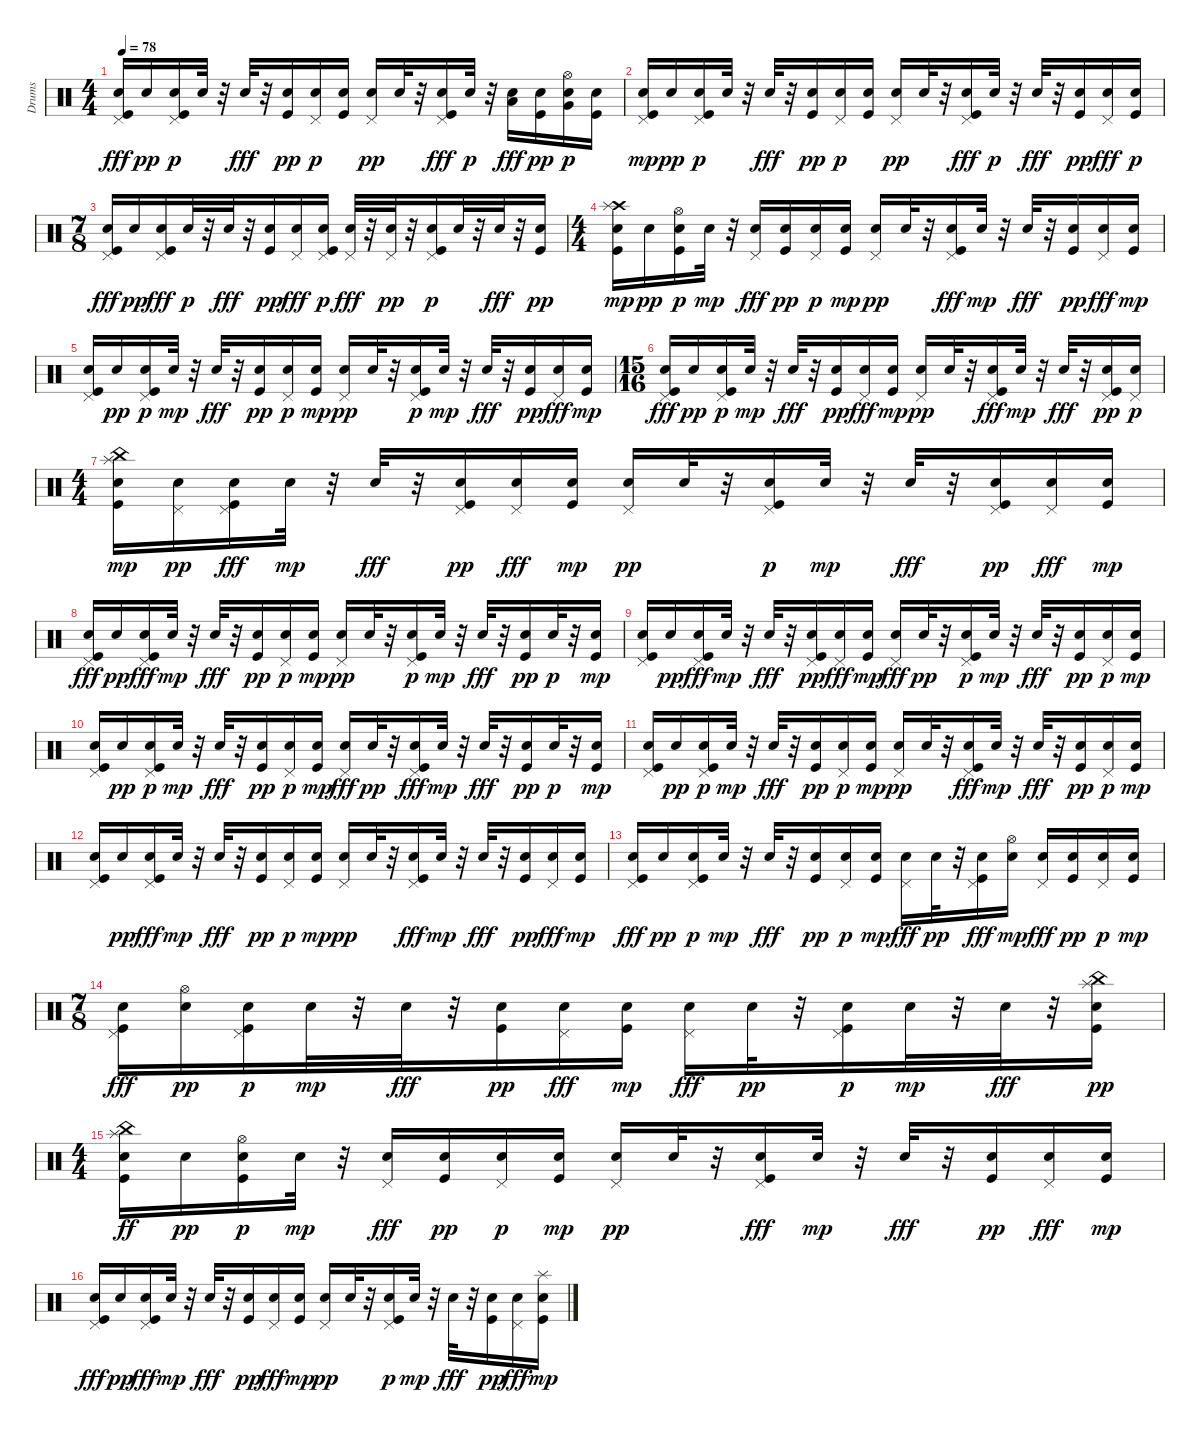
\track ("Drums" "Drums") {instrument percussion}
\staff {score}
\articulation defaults
\ts (4 4)
\tempo 78
\clef neutral
\ks c
("Snare (hit) 2" "Kick (hit)" "Pedal Hi-Hat (hit)").16{dy fff} "Snare (hit) 2".16{dy pp} ("Pedal Hi-Hat (hit)" "Snare (hit) 2" "Kick (hit)").16{dy p} "Snare (hit) 2".32 r.32 "Snare (hit) 2".32{dy fff} r.32 ("Snare (hit) 2" "Kick (hit)").16{dy pp} ("Pedal Hi-Hat (hit)" "Snare (hit) 2").16{dy p} ("Snare (hit) 2" "Kick (hit)").16 ("Pedal Hi-Hat (hit)" "Snare (hit) 2").16{dy pp} "Snare (hit) 2".32 r.32 ("Snare (hit) 2" "Kick (hit)" "Pedal Hi-Hat (hit)").16{dy fff} "Snare (hit) 2".32{dy p} r.32 ("Low Tom (hit)" "Snare (hit) 2").16{dy fff} ("Snare (hit) 2" "Kick (hit)").16{dy pp} ("Very Low Tom (hit)" "Hi-Hat (open)" "Snare (hit) 2").16{dy p} ("Snare (hit) 2" "Kick (hit)").16 |
("Pedal Hi-Hat (hit)" "Snare (hit) 2" "Kick (hit)").16{dy mp} "Snare (hit) 2".16{dy pp} ("Kick (hit)" "Pedal Hi-Hat (hit)" "Snare (hit) 2").16{dy p} "Snare (hit) 2".32 r.32 "Snare (hit) 2".32{dy fff} r.32 ("Snare (hit) 2" "Kick (hit)").16{dy pp} ("Pedal Hi-Hat (hit)" "Snare (hit) 2").16{dy p} ("Snare (hit) 2" "Kick (hit)").16 ("Pedal Hi-Hat (hit)" "Snare (hit) 2").16{dy pp} "Snare (hit) 2".32 r.32 ("Kick (hit)" "Snare (hit) 2" "Pedal Hi-Hat (hit)").16{dy fff} "Snare (hit) 2".32{dy p} r.32 "Snare (hit) 2".32{dy fff} r.32 ("Snare (hit) 2" "Kick (hit)").16{dy pp} ("Snare (hit) 2" "Pedal Hi-Hat (hit)").16{dy fff} ("Kick (hit)" "Snare (hit) 2").16{dy p} |
\ts (7 8)
("Snare (hit) 2" "Pedal Hi-Hat (hit)" "Kick (hit)").16{dy fff} "Snare (hit) 2".16{dy pp} ("Snare (hit) 2" "Pedal Hi-Hat (hit)" "Kick (hit)").16{dy fff} "Snare (hit) 2".32{dy p} r.32 "Snare (hit) 2".32{dy fff} r.32 ("Snare (hit) 2" "Kick (hit)").16{dy pp} ("Snare (hit) 2" "Pedal Hi-Hat (hit)").16{dy fff} ("Pedal Hi-Hat (hit)" "Snare (hit) 2" "Kick (hit)").16{dy p} ("Snare (hit) 2" "Pedal Hi-Hat (hit)").32{dy fff} r.32 ("Pedal Hi-Hat (hit)" "Snare (hit) 2").32{dy pp} r.32 ("Pedal Hi-Hat (hit)" "Snare (hit) 2" "Kick (hit)").16{dy p} "Snare (hit) 2".32 r.32 "Snare (hit) 2".32{dy fff} r.32 ("Snare (hit) 2" "Kick (hit)").16{dy pp} |
\ts (4 4)
("Crash high (hit)" "Splash (hit)" "Kick (hit)" "Snare (hit) 2").16{dy mp} "Snare (hit) 2".16{dy pp} ("Kick (hit)" "Hi-Hat (open)" "Snare (hit) 2").16{dy p} "Snare (hit) 2".32{dy mp} r.32 ("Pedal Hi-Hat (hit)" "Snare (hit) 2").16{dy fff} ("Snare (hit) 2" "Kick (hit)").16{dy pp} ("Pedal Hi-Hat (hit)" "Snare (hit) 2").16{dy p} ("Kick (hit)" "Snare (hit) 2").16{dy mp} ("Pedal Hi-Hat (hit)" "Snare (hit) 2").16{dy pp} "Snare (hit) 2".32 r.32 ("Snare (hit) 2" "Kick (hit)" "Pedal Hi-Hat (hit)").16{dy fff} "Snare (hit) 2".32{dy mp} r.32 "Snare (hit) 2".32{dy fff} r.32 ("Kick (hit)" "Snare (hit) 2").16{dy pp} ("Snare (hit) 2" "Pedal Hi-Hat (hit)").16{dy fff} ("Snare (hit) 2" "Kick (hit)").16{dy mp} |
("Pedal Hi-Hat (hit)" "Kick (hit)" "Snare (hit) 2").16 "Snare (hit) 2".16{dy pp} ("Pedal Hi-Hat (hit)" "Snare (hit) 2" "Kick (hit)").16{dy p} "Snare (hit) 2".32{dy mp} r.32 "Snare (hit) 2".32{dy fff} r.32 ("Snare (hit) 2" "Kick (hit)").16{dy pp} ("Pedal Hi-Hat (hit)" "Snare (hit) 2").16{dy p} ("Kick (hit)" "Snare (hit) 2").16{dy mp} ("Pedal Hi-Hat (hit)" "Snare (hit) 2").16{dy pp} "Snare (hit) 2".32 r.32 ("Pedal Hi-Hat (hit)" "Snare (hit) 2" "Kick (hit)").16{dy p} "Snare (hit) 2".32{dy mp} r.32 "Snare (hit) 2".32{dy fff} r.32 ("Snare (hit) 2" "Kick (hit)").16{dy pp} ("Snare (hit) 2" "Pedal Hi-Hat (hit)").16{dy fff} ("Snare (hit) 2" "Kick (hit)").16{dy mp} |
\ts (15 16)
("Kick (hit)" "Snare (hit) 2" "Pedal Hi-Hat (hit)").16{dy fff} "Snare (hit) 2".16{dy pp} ("Kick (hit)" "Pedal Hi-Hat (hit)" "Snare (hit) 2").16{dy p} "Snare (hit) 2".32{dy mp} r.32 "Snare (hit) 2".32{dy fff} r.32 ("Kick (hit)" "Snare (hit) 2").16{dy pp} ("Snare (hit) 2" "Pedal Hi-Hat (hit)").16{dy fff} ("Snare (hit) 2" "Kick (hit)").16{dy mp} ("Pedal Hi-Hat (hit)" "Snare (hit) 2").16{dy pp} "Snare (hit) 2".32 r.32 ("Snare (hit) 2" "Pedal Hi-Hat (hit)" "Kick (hit)").16{dy fff} "Snare (hit) 2".32{dy mp} r.32 "Snare (hit) 2".32{dy fff} r.32 ("Pedal Hi-Hat (hit)" "Snare (hit) 2" "Kick (hit)").16{dy pp} ("Pedal Hi-Hat (hit)" "Snare (hit) 2").16{dy p} |
\ts (4 4)
("China (hit)" "Snare (hit) 2" "Kick (hit)" "Splash (hit)").16{dy mp} ("Pedal Hi-Hat (hit)" "Snare (hit) 2").16{dy pp} ("Snare (hit) 2" "Pedal Hi-Hat (hit)" "Kick (hit)").16{dy fff} "Snare (hit) 2".32{dy mp} r.32 "Snare (hit) 2".32{dy fff} r.32 ("Pedal Hi-Hat (hit)" "Kick (hit)" "Snare (hit) 2").16{dy pp} ("Snare (hit) 2" "Pedal Hi-Hat (hit)").16{dy fff} ("Snare (hit) 2" "Kick (hit)").16{dy mp} ("Pedal Hi-Hat (hit)" "Snare (hit) 2").16{dy pp} "Snare (hit) 2".32 r.32 ("Pedal Hi-Hat (hit)" "Kick (hit)" "Snare (hit) 2").16{dy p} "Snare (hit) 2".32{dy mp} r.32 "Snare (hit) 2".32{dy fff} r.32 ("Pedal Hi-Hat (hit)" "Kick (hit)" "Snare (hit) 2").16{dy pp} ("Snare (hit) 2" "Pedal Hi-Hat (hit)").16{dy fff} ("Kick (hit)" "Snare (hit) 2").16{dy mp} |
("Snare (hit) 2" "Kick (hit)" "Pedal Hi-Hat (hit)").16{dy fff} "Snare (hit) 2".16{dy pp} ("Snare (hit) 2" "Pedal Hi-Hat (hit)" "Kick (hit)").16{dy fff} "Snare (hit) 2".32{dy mp} r.32 "Snare (hit) 2".32{dy fff} r.32 ("Snare (hit) 2" "Kick (hit)").16{dy pp} ("Pedal Hi-Hat (hit)" "Snare (hit) 2").16{dy p} ("Snare (hit) 2" "Kick (hit)").16{dy mp} ("Pedal Hi-Hat (hit)" "Snare (hit) 2").16{dy pp} "Snare (hit) 2".32 r.32 ("Pedal Hi-Hat (hit)" "Snare (hit) 2" "Kick (hit)").16{dy p} "Snare (hit) 2".32{dy mp} r.32 "Snare (hit) 2".32{dy fff} r.32 ("Snare (hit) 2" "Kick (hit)").16{dy pp} "Snare (hit) 2".32{dy p} r.32 ("Kick (hit)" "Snare (hit) 2").16{dy mp} |
("Kick (hit)" "Pedal Hi-Hat (hit)" "Snare (hit) 2").16 "Snare (hit) 2".16{dy pp} ("Snare (hit) 2" "Pedal Hi-Hat (hit)" "Kick (hit)").16{dy fff} "Snare (hit) 2".32{dy mp} r.32 "Snare (hit) 2".32{dy fff} r.32 ("Pedal Hi-Hat (hit)" "Kick (hit)" "Snare (hit) 2").16{dy pp} ("Snare (hit) 2" "Pedal Hi-Hat (hit)").16{dy fff} ("Kick (hit)" "Snare (hit) 2").16{dy mp} ("Snare (hit) 2" "Pedal Hi-Hat (hit)").16{dy fff} "Snare (hit) 2".32{dy pp} r.32 ("Kick (hit)" "Pedal Hi-Hat (hit)" "Snare (hit) 2").16{dy p} "Snare (hit) 2".32{dy mp} r.32 "Snare (hit) 2".32{dy fff} r.32 ("Kick (hit)" "Snare (hit) 2").16{dy pp} ("Pedal Hi-Hat (hit)" "Snare (hit) 2").16{dy p} ("Snare (hit) 2" "Kick (hit)").16{dy mp} |
("Pedal Hi-Hat (hit)" "Kick (hit)" "Snare (hit) 2").16 "Snare (hit) 2".16{dy pp} ("Pedal Hi-Hat (hit)" "Kick (hit)" "Snare (hit) 2").16{dy p} "Snare (hit) 2".32{dy mp} r.32 "Snare (hit) 2".32{dy fff} r.32 ("Kick (hit)" "Snare (hit) 2").16{dy pp} ("Pedal Hi-Hat (hit)" "Snare (hit) 2").16{dy p} ("Snare (hit) 2" "Kick (hit)").16{dy mp} ("Snare (hit) 2" "Pedal Hi-Hat (hit)").16{dy fff} "Snare (hit) 2".32{dy pp} r.32 ("Snare (hit) 2" "Pedal Hi-Hat (hit)" "Kick (hit)").16{dy fff} "Snare (hit) 2".32{dy mp} r.32 "Snare (hit) 2".32{dy fff} r.32 ("Kick (hit)" "Snare (hit) 2").16{dy pp} "Snare (hit) 2".32{dy p} r.32 ("Snare (hit) 2" "Kick (hit)").16{dy mp} |
("Pedal Hi-Hat (hit)" "Kick (hit)" "Snare (hit) 2").16 "Snare (hit) 2".16{dy pp} ("Kick (hit)" "Pedal Hi-Hat (hit)" "Snare (hit) 2").16{dy p} "Snare (hit) 2".32{dy mp} r.32 "Snare (hit) 2".32{dy fff} r.32 ("Snare (hit) 2" "Kick (hit)").16{dy pp} ("Pedal Hi-Hat (hit)" "Snare (hit) 2").16{dy p} ("Kick (hit)" "Snare (hit) 2").16{dy mp} ("Pedal Hi-Hat (hit)" "Snare (hit) 2").16{dy pp} "Snare (hit) 2".32 r.32 ("Snare (hit) 2" "Pedal Hi-Hat (hit)" "Kick (hit)").16{dy fff} "Snare (hit) 2".32{dy mp} r.32 "Snare (hit) 2".32{dy fff} r.32 ("Snare (hit) 2" "Kick (hit)").16{dy pp} ("Pedal Hi-Hat (hit)" "Snare (hit) 2").16{dy p} ("Snare (hit) 2" "Kick (hit)").16{dy mp} |
("Pedal Hi-Hat (hit)" "Kick (hit)" "Snare (hit) 2").16 "Snare (hit) 2".16{dy pp} ("Snare (hit) 2" "Kick (hit)" "Pedal Hi-Hat (hit)").16{dy fff} "Snare (hit) 2".32{dy mp} r.32 "Snare (hit) 2".32{dy fff} r.32 ("Snare (hit) 2" "Kick (hit)").16{dy pp} ("Pedal Hi-Hat (hit)" "Snare (hit) 2").16{dy p} ("Snare (hit) 2" "Kick (hit)").16{dy mp} ("Pedal Hi-Hat (hit)" "Snare (hit) 2").16{dy pp} "Snare (hit) 2".32 r.32 ("Snare (hit) 2" "Kick (hit)" "Pedal Hi-Hat (hit)").16{dy fff} "Snare (hit) 2".32{dy mp} r.32 "Snare (hit) 2".32{dy fff} r.32 ("Kick (hit)" "Snare (hit) 2").16{dy pp} ("Snare (hit) 2" "Pedal Hi-Hat (hit)").16{dy fff} ("Kick (hit)" "Snare (hit) 2").16{dy mp} |
("Snare (hit) 2" "Kick (hit)" "Pedal Hi-Hat (hit)").16{dy fff} "Snare (hit) 2".16{dy pp} ("Kick (hit)" "Pedal Hi-Hat (hit)" "Snare (hit) 2").16{dy p} "Snare (hit) 2".32{dy mp} r.32 "Snare (hit) 2".32{dy fff} r.32 ("Snare (hit) 2" "Kick (hit)").16{dy pp} ("Pedal Hi-Hat (hit)" "Snare (hit) 2").16{dy p} ("Snare (hit) 2" "Kick (hit)").16{dy mp} ("Snare (hit) 2" "Pedal Hi-Hat (hit)").16{dy fff} "Snare (hit) 2".32{dy pp} r.32 ("Snare (hit) 2" "Pedal Hi-Hat (hit)" "Kick (hit)").16{dy fff} ("Hi-Hat (open)" "Snare (hit) 2").16{dy mp} ("Pedal Hi-Hat (hit)" "Snare (hit) 2").16{dy fff} ("Snare (hit) 2" "Kick (hit)").16{dy pp} ("Pedal Hi-Hat (hit)" "Snare (hit) 2").16{dy p} ("Kick (hit)" "Snare (hit) 2").16{dy mp} |
\ts (7 8)
("Snare (hit) 2" "Kick (hit)" "Pedal Hi-Hat (hit)").16{dy fff} ("Hi-Hat (open)" "Snare (hit) 2").16{dy pp} ("Pedal Hi-Hat (hit)" "Snare (hit) 2" "Kick (hit)").16{dy p} "Snare (hit) 2".32{dy mp} r.32 "Snare (hit) 2".32{dy fff} r.32 ("Kick (hit)" "Snare (hit) 2").16{dy pp} ("Snare (hit) 2" "Pedal Hi-Hat (hit)").16{dy fff} ("Kick (hit)" "Snare (hit) 2").16{dy mp} ("Snare (hit) 2" "Pedal Hi-Hat (hit)").16{dy fff} "Snare (hit) 2".32{dy pp} r.32 ("Pedal Hi-Hat (hit)" "Kick (hit)" "Snare (hit) 2").16{dy p} "Snare (hit) 2".32{dy mp} r.32 "Snare (hit) 2".32{dy fff} r.32 ("China (hit)" "Splash (hit)" "Kick (hit)" "Snare (hit) 2").16{dy pp} |
\ts (4 4)
("China (hit)" "Snare (hit) 2" "Splash (hit)" "Kick (hit)").16{dy ff} "Snare (hit) 2".16{dy pp} ("Hi-Hat (open)" "Snare (hit) 2" "Kick (hit)").16{dy p} "Snare (hit) 2".32{dy mp} r.32 ("Snare (hit) 2" "Pedal Hi-Hat (hit)").16{dy fff} ("Snare (hit) 2" "Kick (hit)").16{dy pp} ("Pedal Hi-Hat (hit)" "Snare (hit) 2").16{dy p} ("Snare (hit) 2" "Kick (hit)").16{dy mp} ("Pedal Hi-Hat (hit)" "Snare (hit) 2").16{dy pp} "Snare (hit) 2".32 r.32 ("Snare (hit) 2" "Kick (hit)" "Pedal Hi-Hat (hit)").16{dy fff} "Snare (hit) 2".32{dy mp} r.32 "Snare (hit) 2".32{dy fff} r.32 ("Kick (hit)" "Snare (hit) 2").16{dy pp} ("Snare (hit) 2" "Pedal Hi-Hat (hit)").16{dy fff} ("Kick (hit)" "Snare (hit) 2").16{dy mp} |
("Snare (hit) 2" "Kick (hit)" "Pedal Hi-Hat (hit)").16{dy fff} "Snare (hit) 2".16{dy pp} ("Kick (hit)" "Snare (hit) 2" "Pedal Hi-Hat (hit)").16{dy fff} "Snare (hit) 2".32{dy mp} r.32 "Snare (hit) 2".32{dy fff} r.32 ("Kick (hit)" "Snare (hit) 2").16{dy pp} ("Snare (hit) 2" "Pedal Hi-Hat (hit)").16{dy fff} ("Snare (hit) 2" "Kick (hit)").16{dy mp} ("Pedal Hi-Hat (hit)" "Snare (hit) 2").16{dy pp} "Snare (hit) 2".32 r.32 ("Pedal Hi-Hat (hit)" "Kick (hit)" "Snare (hit) 2").16{dy p} "Snare (hit) 2".32{dy mp} r.32 "Snare (hit) 2".32{dy fff} r.32 ("Kick (hit)" "Snare (hit) 2").16{dy pp} ("Snare (hit) 2" "Pedal Hi-Hat (hit)").16{dy fff} ("Splash (hit)" "Snare (hit) 2" "Kick (hit)").16{dy mp}
